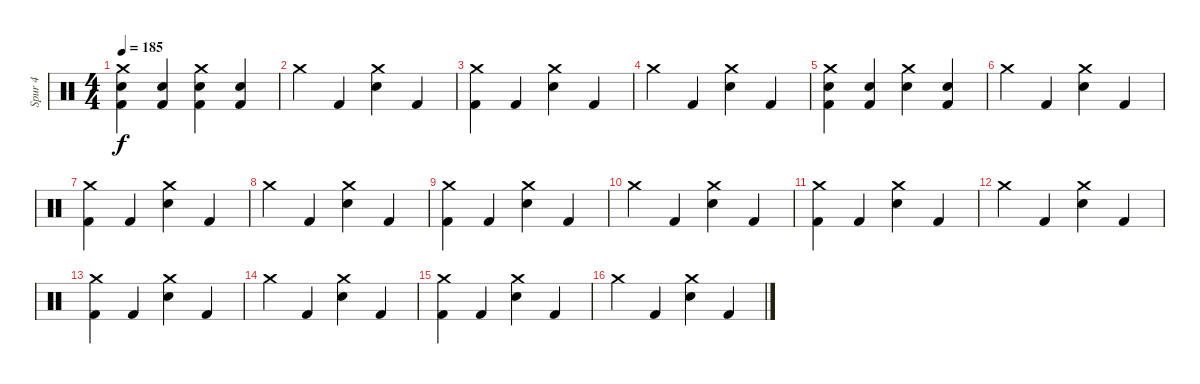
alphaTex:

\track ("Spur 4" "Spur 4") {instrument percussion}
\staff {score}
\articulation defaults
\ts (4 4)
\tempo 185
\clef neutral
\ks c
("Crash medium (hit)" "Electric Snare (hit)" "Kick (hit) 2").4{dy f} ("Electric Snare (hit)" "Kick (hit) 2").4 ("Crash medium (hit)" "Electric Snare (hit)" "Kick (hit) 2").4 ("Electric Snare (hit)" "Kick (hit) 2").4 |
"Crash medium (hit)".4 "Kick (hit) 2".4 ("Crash medium (hit)" "Electric Snare (hit)").4 "Kick (hit) 2".4 |
("Crash medium (hit)" "Kick (hit) 2").4 "Kick (hit) 2".4 ("Crash medium (hit)" "Electric Snare (hit)").4 "Kick (hit) 2".4 |
"Crash medium (hit)".4 "Kick (hit) 2".4 ("Crash medium (hit)" "Electric Snare (hit)").4 "Kick (hit) 2".4 |
("Crash medium (hit)" "Electric Snare (hit)" "Kick (hit) 2").4 ("Electric Snare (hit)" "Kick (hit) 2").4 ("Crash medium (hit)" "Electric Snare (hit)").4 ("Electric Snare (hit)" "Kick (hit) 2").4 |
"Crash medium (hit)".4 "Kick (hit) 2".4 ("Crash medium (hit)" "Electric Snare (hit)").4 "Kick (hit) 2".4 |
("Crash medium (hit)" "Kick (hit) 2").4 "Kick (hit) 2".4 ("Crash medium (hit)" "Electric Snare (hit)").4 "Kick (hit) 2".4 |
"Crash medium (hit)".4 "Kick (hit) 2".4 ("Crash medium (hit)" "Electric Snare (hit)").4 "Kick (hit) 2".4 |
("Crash medium (hit)" "Kick (hit) 2").4 "Kick (hit) 2".4 ("Crash medium (hit)" "Electric Snare (hit)").4 "Kick (hit) 2".4 |
"Crash medium (hit)".4 "Kick (hit) 2".4 ("Crash medium (hit)" "Electric Snare (hit)").4 "Kick (hit) 2".4 |
("Crash medium (hit)" "Kick (hit) 2").4 "Kick (hit) 2".4 ("Crash medium (hit)" "Electric Snare (hit)").4 "Kick (hit) 2".4 |
"Crash medium (hit)".4 "Kick (hit) 2".4 ("Crash medium (hit)" "Electric Snare (hit)").4 "Kick (hit) 2".4 |
("Crash medium (hit)" "Kick (hit) 2").4 "Kick (hit) 2".4 ("Crash medium (hit)" "Electric Snare (hit)").4 "Kick (hit) 2".4 |
"Crash medium (hit)".4 "Kick (hit) 2".4 ("Crash medium (hit)" "Electric Snare (hit)").4 "Kick (hit) 2".4 |
("Crash medium (hit)" "Kick (hit) 2").4 "Kick (hit) 2".4 ("Crash medium (hit)" "Electric Snare (hit)").4 "Kick (hit) 2".4 |
"Crash medium (hit)".4 "Kick (hit) 2".4 ("Crash medium (hit)" "Electric Snare (hit)").4 "Kick (hit) 2".4
